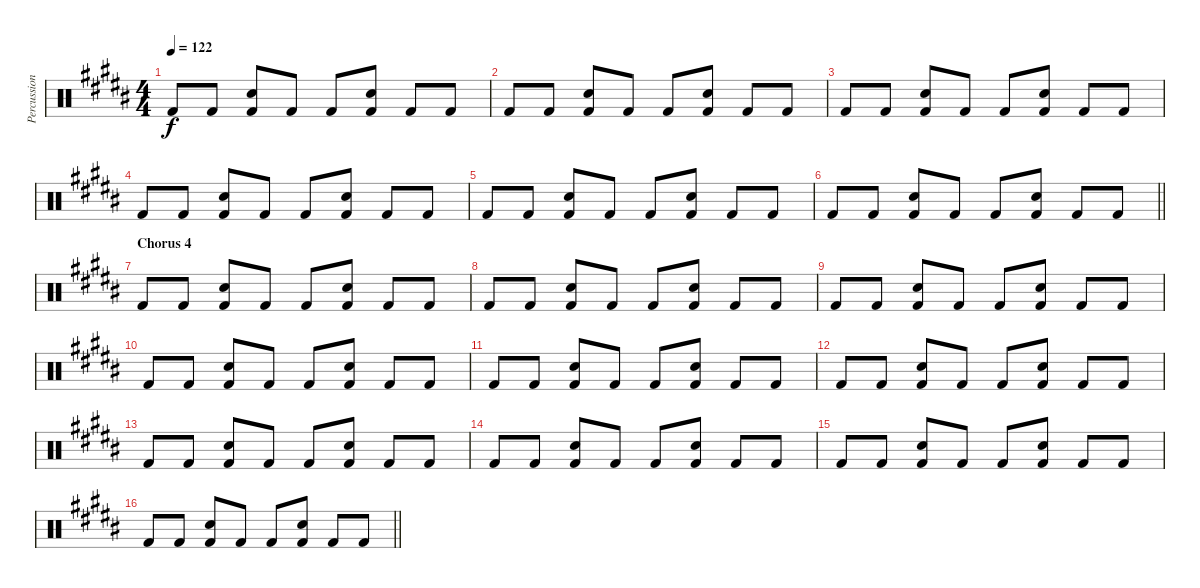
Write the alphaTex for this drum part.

\track ("Percussion" "Percussion") {instrument percussion}
\staff {score}
\articulation defaults
\ts (4 4)
\tempo 122
\clef neutral
\ks b "Kick (hit) 2".8{dy f} "Kick (hit) 2".8
("Kick (hit) 2" "Snare (hit) 2").8 "Kick (hit) 2".8 "Kick (hit) 2".8 ("Kick (hit) 2" "Snare (hit) 2").8 "Kick (hit) 2".8 "Kick (hit) 2".8 |
"Kick (hit) 2".8 "Kick (hit) 2".8 ("Kick (hit) 2" "Snare (hit) 2").8 "Kick (hit) 2".8 "Kick (hit) 2".8 ("Kick (hit) 2" "Snare (hit) 2").8 "Kick (hit) 2".8 "Kick (hit) 2".8 |
"Kick (hit) 2".8 "Kick (hit) 2".8 ("Kick (hit) 2" "Snare (hit) 2").8 "Kick (hit) 2".8 "Kick (hit) 2".8 ("Kick (hit) 2" "Snare (hit) 2").8 "Kick (hit) 2".8 "Kick (hit) 2".8 |
"Kick (hit) 2".8 "Kick (hit) 2".8 ("Kick (hit) 2" "Snare (hit) 2").8 "Kick (hit) 2".8 "Kick (hit) 2".8 ("Kick (hit) 2" "Snare (hit) 2").8 "Kick (hit) 2".8 "Kick (hit) 2".8 |
"Kick (hit) 2".8 "Kick (hit) 2".8 ("Kick (hit) 2" "Snare (hit) 2").8 "Kick (hit) 2".8 "Kick (hit) 2".8 ("Kick (hit) 2" "Snare (hit) 2").8 "Kick (hit) 2".8 "Kick (hit) 2".8 |
\barLineRight lightlight "Kick (hit) 2".8 "Kick (hit) 2".8
("Kick (hit) 2" "Snare (hit) 2").8 "Kick (hit) 2".8 "Kick (hit) 2".8 ("Kick (hit) 2" "Snare (hit) 2").8 "Kick (hit) 2".8 "Kick (hit) 2".8 |
\section ("" "Chorus 4")
"Kick (hit) 2".8 "Kick (hit) 2".8 ("Kick (hit) 2" "Snare (hit) 2").8 "Kick (hit) 2".8 "Kick (hit) 2".8 ("Kick (hit) 2" "Snare (hit) 2").8 "Kick (hit) 2".8 "Kick (hit) 2".8 |
"Kick (hit) 2".8 "Kick (hit) 2".8 ("Kick (hit) 2" "Snare (hit) 2").8 "Kick (hit) 2".8 "Kick (hit) 2".8 ("Kick (hit) 2" "Snare (hit) 2").8 "Kick (hit) 2".8 "Kick (hit) 2".8 |
"Kick (hit) 2".8 "Kick (hit) 2".8 ("Kick (hit) 2" "Snare (hit) 2").8 "Kick (hit) 2".8 "Kick (hit) 2".8 ("Kick (hit) 2" "Snare (hit) 2").8 "Kick (hit) 2".8 "Kick (hit) 2".8 |
"Kick (hit) 2".8 "Kick (hit) 2".8 ("Kick (hit) 2" "Snare (hit) 2").8 "Kick (hit) 2".8 "Kick (hit) 2".8 ("Kick (hit) 2" "Snare (hit) 2").8 "Kick (hit) 2".8 "Kick (hit) 2".8 |
"Kick (hit) 2".8 "Kick (hit) 2".8 ("Kick (hit) 2" "Snare (hit) 2").8 "Kick (hit) 2".8 "Kick (hit) 2".8 ("Kick (hit) 2" "Snare (hit) 2").8 "Kick (hit) 2".8 "Kick (hit) 2".8 |
"Kick (hit) 2".8 "Kick (hit) 2".8 ("Kick (hit) 2" "Snare (hit) 2").8 "Kick (hit) 2".8 "Kick (hit) 2".8 ("Kick (hit) 2" "Snare (hit) 2").8 "Kick (hit) 2".8 "Kick (hit) 2".8 |
"Kick (hit) 2".8 "Kick (hit) 2".8 ("Kick (hit) 2" "Snare (hit) 2").8 "Kick (hit) 2".8 "Kick (hit) 2".8 ("Kick (hit) 2" "Snare (hit) 2").8 "Kick (hit) 2".8 "Kick (hit) 2".8 |
"Kick (hit) 2".8 "Kick (hit) 2".8 ("Kick (hit) 2" "Snare (hit) 2").8 "Kick (hit) 2".8 "Kick (hit) 2".8 ("Kick (hit) 2" "Snare (hit) 2").8 "Kick (hit) 2".8 "Kick (hit) 2".8 |
"Kick (hit) 2".8 "Kick (hit) 2".8 ("Kick (hit) 2" "Snare (hit) 2").8 "Kick (hit) 2".8 "Kick (hit) 2".8 ("Kick (hit) 2" "Snare (hit) 2").8 "Kick (hit) 2".8 "Kick (hit) 2".8 |
\barLineRight lightlight "Kick (hit) 2".8 "Kick (hit) 2".8
("Kick (hit) 2" "Snare (hit) 2").8 "Kick (hit) 2".8 "Kick (hit) 2".8 ("Kick (hit) 2" "Snare (hit) 2").8 "Kick (hit) 2".8 "Kick (hit) 2".8
